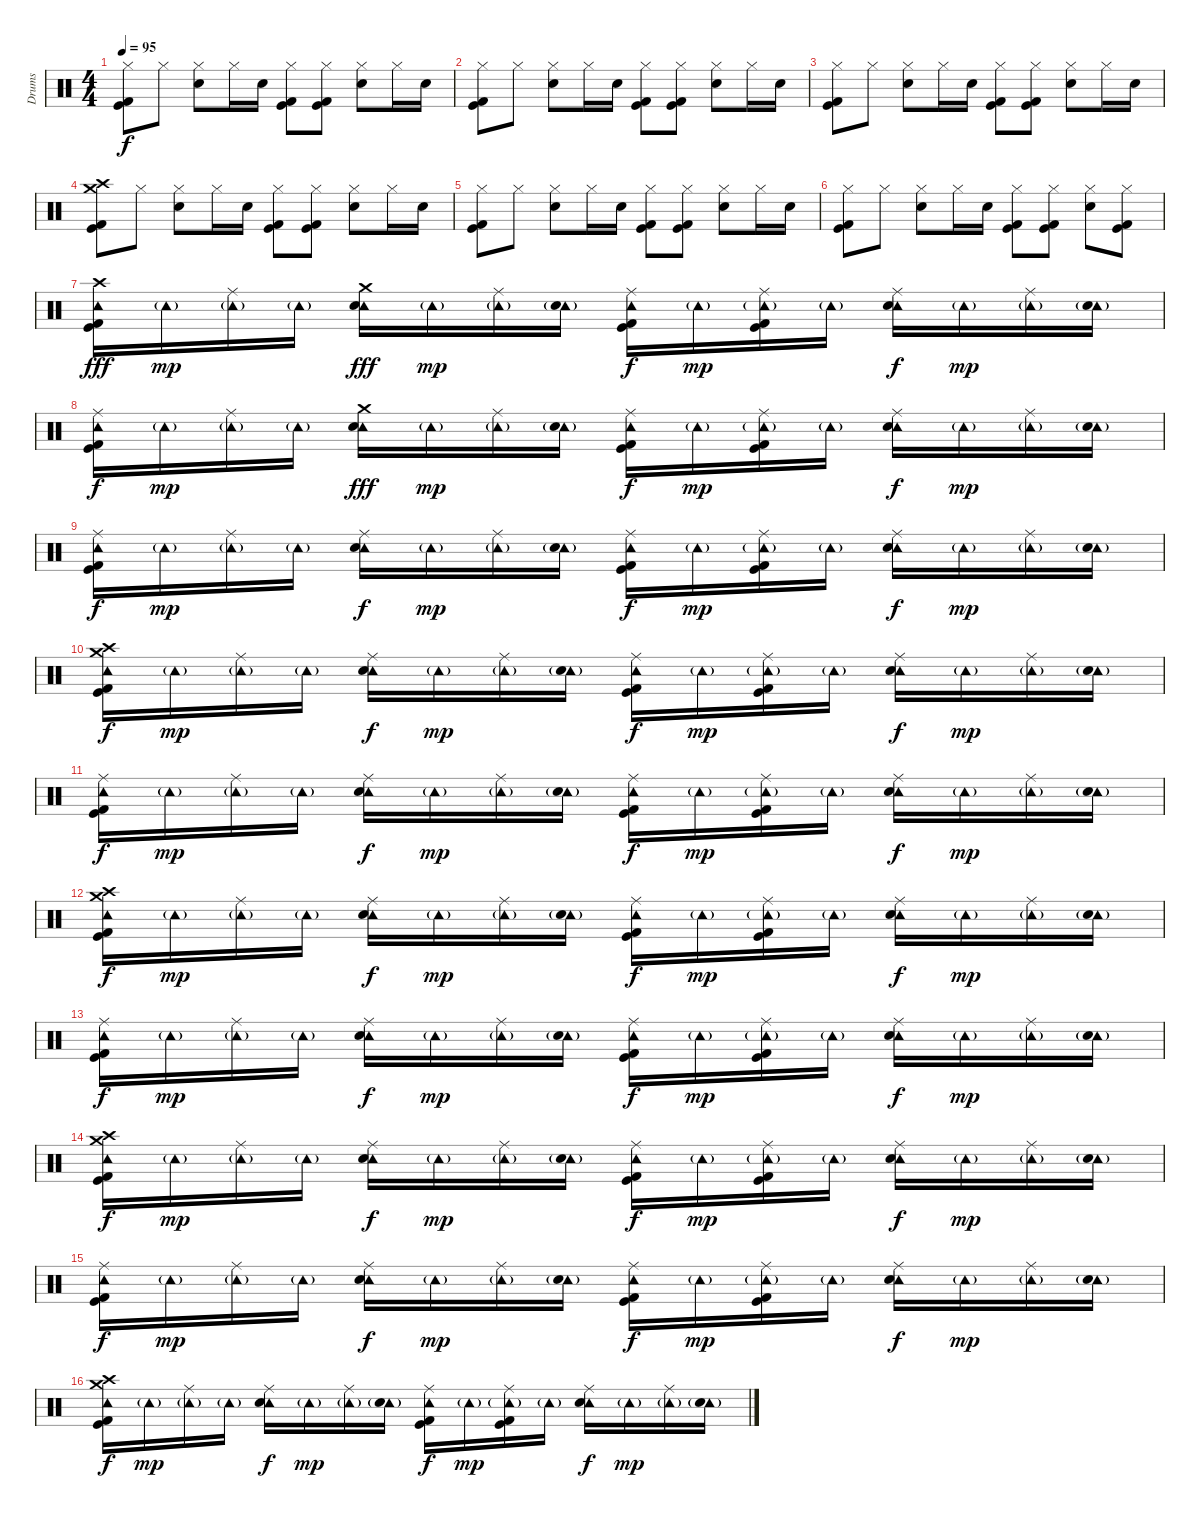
\track ("Drums" "Drums") {instrument percussion}
\staff {score}
\articulation defaults
\ts (4 4)
\tempo 95
\clef neutral
\ks c
("Hi-Hat (closed)" "Kick (hit) 2" "Kick (hit)").8{dy f} "Hi-Hat (closed)".8 ("Hi-Hat (closed)" "Snare (hit) 2").8 "Hi-Hat (closed)".16 "Snare (hit) 2".16 ("Hi-Hat (closed)" "Kick (hit) 2" "Kick (hit)").8 ("Hi-Hat (closed)" "Kick (hit) 2" "Kick (hit)").8 ("Hi-Hat (closed)" "Snare (hit) 2").8 "Hi-Hat (closed)".16 "Snare (hit) 2".16 |
("Hi-Hat (closed)" "Kick (hit) 2" "Kick (hit)").8 "Hi-Hat (closed)".8 ("Hi-Hat (closed)" "Snare (hit) 2").8 "Hi-Hat (closed)".16 "Snare (hit) 2".16 ("Hi-Hat (closed)" "Kick (hit) 2" "Kick (hit)").8 ("Hi-Hat (closed)" "Kick (hit) 2" "Kick (hit)").8 ("Hi-Hat (closed)" "Snare (hit) 2").8 "Hi-Hat (closed)".16 "Snare (hit) 2".16 |
("Hi-Hat (closed)" "Kick (hit) 2" "Kick (hit)").8 "Hi-Hat (closed)".8 ("Hi-Hat (closed)" "Snare (hit) 2").8 "Hi-Hat (closed)".16 "Snare (hit) 2".16 ("Hi-Hat (closed)" "Kick (hit) 2" "Kick (hit)").8 ("Hi-Hat (closed)" "Kick (hit) 2" "Kick (hit)").8 ("Hi-Hat (closed)" "Snare (hit) 2").8 "Hi-Hat (closed)".16 "Snare (hit) 2".16 |
("Crash high (hit)" "Crash medium (hit)" "Kick (hit) 2" "Kick (hit)").8 "Hi-Hat (closed)".8 ("Hi-Hat (closed)" "Snare (hit) 2").8 "Hi-Hat (closed)".16 "Snare (hit) 2".16 ("Hi-Hat (closed)" "Kick (hit) 2" "Kick (hit)").8 ("Hi-Hat (closed)" "Kick (hit) 2" "Kick (hit)").8 ("Hi-Hat (closed)" "Snare (hit) 2").8 "Hi-Hat (closed)".16 "Snare (hit) 2".16 |
("Hi-Hat (closed)" "Kick (hit) 2" "Kick (hit)").8 "Hi-Hat (closed)".8 ("Hi-Hat (closed)" "Snare (hit) 2").8 "Hi-Hat (closed)".16 "Snare (hit) 2".16 ("Hi-Hat (closed)" "Kick (hit) 2" "Kick (hit)").8 ("Hi-Hat (closed)" "Kick (hit) 2" "Kick (hit)").8 ("Hi-Hat (closed)" "Snare (hit) 2").8 "Hi-Hat (closed)".16 "Snare (hit) 2".16 |
("Hi-Hat (closed)" "Kick (hit) 2" "Kick (hit)").8 "Hi-Hat (closed)".8 ("Hi-Hat (closed)" "Snare (hit) 2").8 "Hi-Hat (closed)".16 "Snare (hit) 2".16 ("Hi-Hat (closed)" "Kick (hit) 2" "Kick (hit)").8 ("Hi-Hat (closed)" "Kick (hit) 2" "Kick (hit)").8 ("Hi-Hat (closed)" "Snare (hit) 2").8 ("Hi-Hat (closed)" "Kick (hit) 2" "Kick (hit)").8 |
("Crash high (hit)" "Tambourine (hit)" "Kick (hit) 2" "Kick (hit)").16{dy fff} "Tambourine (hit)"{g}.16{dy mp} ("Ride (middle)" "Tambourine (hit)"{g}).16 "Tambourine (hit)"{g}.16 ("Crash medium (hit)" "Tambourine (hit)" "Snare (hit) 2").16{dy fff} "Tambourine (hit)"{g}.16{dy mp} ("Ride (middle)" "Tambourine (hit)"{g}).16 ("Tambourine (hit)"{g} "Snare (hit) 2").16 ("Ride (middle)" "Tambourine (hit)" "Kick (hit) 2" "Kick (hit)").16{dy f} "Tambourine (hit)"{g}.16{dy mp} ("Ride (middle)" "Tambourine (hit)"{g} "Kick (hit) 2" "Kick (hit)").16 "Tambourine (hit)"{g}.16 ("Ride (middle)" "Tambourine (hit)" "Snare (hit) 2").16{dy f} "Tambourine (hit)"{g}.16{dy mp} ("Ride (middle)" "Tambourine (hit)"{g}).16 ("Tambourine (hit)"{g} "Snare (hit) 2").16 |
("Ride (middle)" "Tambourine (hit)" "Kick (hit) 2" "Kick (hit)").16{dy f} "Tambourine (hit)"{g}.16{dy mp} ("Ride (middle)" "Tambourine (hit)"{g}).16 "Tambourine (hit)"{g}.16 ("Crash medium (hit)" "Tambourine (hit)" "Snare (hit) 2").16{dy fff} "Tambourine (hit)"{g}.16{dy mp} ("Ride (middle)" "Tambourine (hit)"{g}).16 ("Tambourine (hit)"{g} "Snare (hit) 2").16 ("Ride (middle)" "Tambourine (hit)" "Kick (hit) 2" "Kick (hit)").16{dy f} "Tambourine (hit)"{g}.16{dy mp} ("Ride (middle)" "Tambourine (hit)"{g} "Kick (hit) 2" "Kick (hit)").16 "Tambourine (hit)"{g}.16 ("Ride (middle)" "Tambourine (hit)" "Snare (hit) 2").16{dy f} "Tambourine (hit)"{g}.16{dy mp} ("Ride (middle)" "Tambourine (hit)"{g}).16 ("Tambourine (hit)"{g} "Snare (hit) 2").16 |
("Ride (middle)" "Tambourine (hit)" "Kick (hit) 2" "Kick (hit)").16{dy f} "Tambourine (hit)"{g}.16{dy mp} ("Ride (middle)" "Tambourine (hit)"{g}).16 "Tambourine (hit)"{g}.16 ("Ride (middle)" "Tambourine (hit)" "Snare (hit) 2").16{dy f} "Tambourine (hit)"{g}.16{dy mp} ("Ride (middle)" "Tambourine (hit)"{g}).16 ("Tambourine (hit)"{g} "Snare (hit) 2").16 ("Ride (middle)" "Tambourine (hit)" "Kick (hit) 2" "Kick (hit)").16{dy f} "Tambourine (hit)"{g}.16{dy mp} ("Ride (middle)" "Tambourine (hit)"{g} "Kick (hit) 2" "Kick (hit)").16 "Tambourine (hit)"{g}.16 ("Ride (middle)" "Tambourine (hit)" "Snare (hit) 2").16{dy f} "Tambourine (hit)"{g}.16{dy mp} ("Ride (middle)" "Tambourine (hit)"{g}).16 ("Tambourine (hit)"{g} "Snare (hit) 2").16 |
("Crash high (hit)" "Tambourine (hit)" "Crash medium (hit)" "Kick (hit) 2" "Kick (hit)").16{dy f} "Tambourine (hit)"{g}.16{dy mp} ("Ride (middle)" "Tambourine (hit)"{g}).16 "Tambourine (hit)"{g}.16 ("Ride (middle)" "Tambourine (hit)" "Snare (hit) 2").16{dy f} "Tambourine (hit)"{g}.16{dy mp} ("Ride (middle)" "Tambourine (hit)"{g}).16 ("Tambourine (hit)"{g} "Snare (hit) 2").16 ("Ride (middle)" "Tambourine (hit)" "Kick (hit) 2" "Kick (hit)").16{dy f} "Tambourine (hit)"{g}.16{dy mp} ("Ride (middle)" "Tambourine (hit)"{g} "Kick (hit) 2" "Kick (hit)").16 "Tambourine (hit)"{g}.16 ("Ride (middle)" "Tambourine (hit)" "Snare (hit) 2").16{dy f} "Tambourine (hit)"{g}.16{dy mp} ("Ride (middle)" "Tambourine (hit)"{g}).16 ("Tambourine (hit)"{g} "Snare (hit) 2").16 |
("Ride (middle)" "Tambourine (hit)" "Kick (hit) 2" "Kick (hit)").16{dy f} "Tambourine (hit)"{g}.16{dy mp} ("Ride (middle)" "Tambourine (hit)"{g}).16 "Tambourine (hit)"{g}.16 ("Ride (middle)" "Tambourine (hit)" "Snare (hit) 2").16{dy f} "Tambourine (hit)"{g}.16{dy mp} ("Ride (middle)" "Tambourine (hit)"{g}).16 ("Tambourine (hit)"{g} "Snare (hit) 2").16 ("Ride (middle)" "Tambourine (hit)" "Kick (hit) 2" "Kick (hit)").16{dy f} "Tambourine (hit)"{g}.16{dy mp} ("Ride (middle)" "Tambourine (hit)"{g} "Kick (hit) 2" "Kick (hit)").16 "Tambourine (hit)"{g}.16 ("Ride (middle)" "Tambourine (hit)" "Snare (hit) 2").16{dy f} "Tambourine (hit)"{g}.16{dy mp} ("Ride (middle)" "Tambourine (hit)"{g}).16 ("Tambourine (hit)"{g} "Snare (hit) 2").16 |
("Crash high (hit)" "Tambourine (hit)" "Crash medium (hit)" "Kick (hit) 2" "Kick (hit)").16{dy f} "Tambourine (hit)"{g}.16{dy mp} ("Ride (middle)" "Tambourine (hit)"{g}).16 "Tambourine (hit)"{g}.16 ("Ride (middle)" "Tambourine (hit)" "Snare (hit) 2").16{dy f} "Tambourine (hit)"{g}.16{dy mp} ("Ride (middle)" "Tambourine (hit)"{g}).16 ("Tambourine (hit)"{g} "Snare (hit) 2").16 ("Ride (middle)" "Tambourine (hit)" "Kick (hit) 2" "Kick (hit)").16{dy f} "Tambourine (hit)"{g}.16{dy mp} ("Ride (middle)" "Tambourine (hit)"{g} "Kick (hit) 2" "Kick (hit)").16 "Tambourine (hit)"{g}.16 ("Ride (middle)" "Tambourine (hit)" "Snare (hit) 2").16{dy f} "Tambourine (hit)"{g}.16{dy mp} ("Ride (middle)" "Tambourine (hit)"{g}).16 ("Tambourine (hit)"{g} "Snare (hit) 2").16 |
("Ride (middle)" "Tambourine (hit)" "Kick (hit) 2" "Kick (hit)").16{dy f} "Tambourine (hit)"{g}.16{dy mp} ("Ride (middle)" "Tambourine (hit)"{g}).16 "Tambourine (hit)"{g}.16 ("Ride (middle)" "Tambourine (hit)" "Snare (hit) 2").16{dy f} "Tambourine (hit)"{g}.16{dy mp} ("Ride (middle)" "Tambourine (hit)"{g}).16 ("Tambourine (hit)"{g} "Snare (hit) 2").16 ("Ride (middle)" "Tambourine (hit)" "Kick (hit) 2" "Kick (hit)").16{dy f} "Tambourine (hit)"{g}.16{dy mp} ("Ride (middle)" "Tambourine (hit)"{g} "Kick (hit) 2" "Kick (hit)").16 "Tambourine (hit)"{g}.16 ("Ride (middle)" "Tambourine (hit)" "Snare (hit) 2").16{dy f} "Tambourine (hit)"{g}.16{dy mp} ("Ride (middle)" "Tambourine (hit)"{g}).16 ("Tambourine (hit)"{g} "Snare (hit) 2").16 |
("Crash high (hit)" "Tambourine (hit)" "Crash medium (hit)" "Kick (hit) 2" "Kick (hit)").16{dy f} "Tambourine (hit)"{g}.16{dy mp} ("Ride (middle)" "Tambourine (hit)"{g}).16 "Tambourine (hit)"{g}.16 ("Ride (middle)" "Tambourine (hit)" "Snare (hit) 2").16{dy f} "Tambourine (hit)"{g}.16{dy mp} ("Ride (middle)" "Tambourine (hit)"{g}).16 ("Tambourine (hit)"{g} "Snare (hit) 2").16 ("Ride (middle)" "Tambourine (hit)" "Kick (hit) 2" "Kick (hit)").16{dy f} "Tambourine (hit)"{g}.16{dy mp} ("Ride (middle)" "Tambourine (hit)"{g} "Kick (hit) 2" "Kick (hit)").16 "Tambourine (hit)"{g}.16 ("Ride (middle)" "Tambourine (hit)" "Snare (hit) 2").16{dy f} "Tambourine (hit)"{g}.16{dy mp} ("Ride (middle)" "Tambourine (hit)"{g}).16 ("Tambourine (hit)"{g} "Snare (hit) 2").16 |
("Ride (middle)" "Tambourine (hit)" "Kick (hit) 2" "Kick (hit)").16{dy f} "Tambourine (hit)"{g}.16{dy mp} ("Ride (middle)" "Tambourine (hit)"{g}).16 "Tambourine (hit)"{g}.16 ("Ride (middle)" "Tambourine (hit)" "Snare (hit) 2").16{dy f} "Tambourine (hit)"{g}.16{dy mp} ("Ride (middle)" "Tambourine (hit)"{g}).16 ("Tambourine (hit)"{g} "Snare (hit) 2").16 ("Ride (middle)" "Tambourine (hit)" "Kick (hit) 2" "Kick (hit)").16{dy f} "Tambourine (hit)"{g}.16{dy mp} ("Ride (middle)" "Tambourine (hit)"{g} "Kick (hit) 2" "Kick (hit)").16 "Tambourine (hit)"{g}.16 ("Ride (middle)" "Tambourine (hit)" "Snare (hit) 2").16{dy f} "Tambourine (hit)"{g}.16{dy mp} ("Ride (middle)" "Tambourine (hit)"{g}).16 ("Tambourine (hit)"{g} "Snare (hit) 2").16 |
("Crash high (hit)" "Tambourine (hit)" "Crash medium (hit)" "Kick (hit) 2" "Kick (hit)").16{dy f} "Tambourine (hit)"{g}.16{dy mp} ("Ride (middle)" "Tambourine (hit)"{g}).16 "Tambourine (hit)"{g}.16 ("Ride (middle)" "Tambourine (hit)" "Snare (hit) 2").16{dy f} "Tambourine (hit)"{g}.16{dy mp} ("Ride (middle)" "Tambourine (hit)"{g}).16 ("Tambourine (hit)"{g} "Snare (hit) 2").16 ("Ride (middle)" "Tambourine (hit)" "Kick (hit) 2" "Kick (hit)").16{dy f} "Tambourine (hit)"{g}.16{dy mp} ("Ride (middle)" "Tambourine (hit)"{g} "Kick (hit) 2" "Kick (hit)").16 "Tambourine (hit)"{g}.16 ("Ride (middle)" "Tambourine (hit)" "Snare (hit) 2").16{dy f} "Tambourine (hit)"{g}.16{dy mp} ("Ride (middle)" "Tambourine (hit)"{g}).16 ("Tambourine (hit)"{g} "Snare (hit) 2").16
